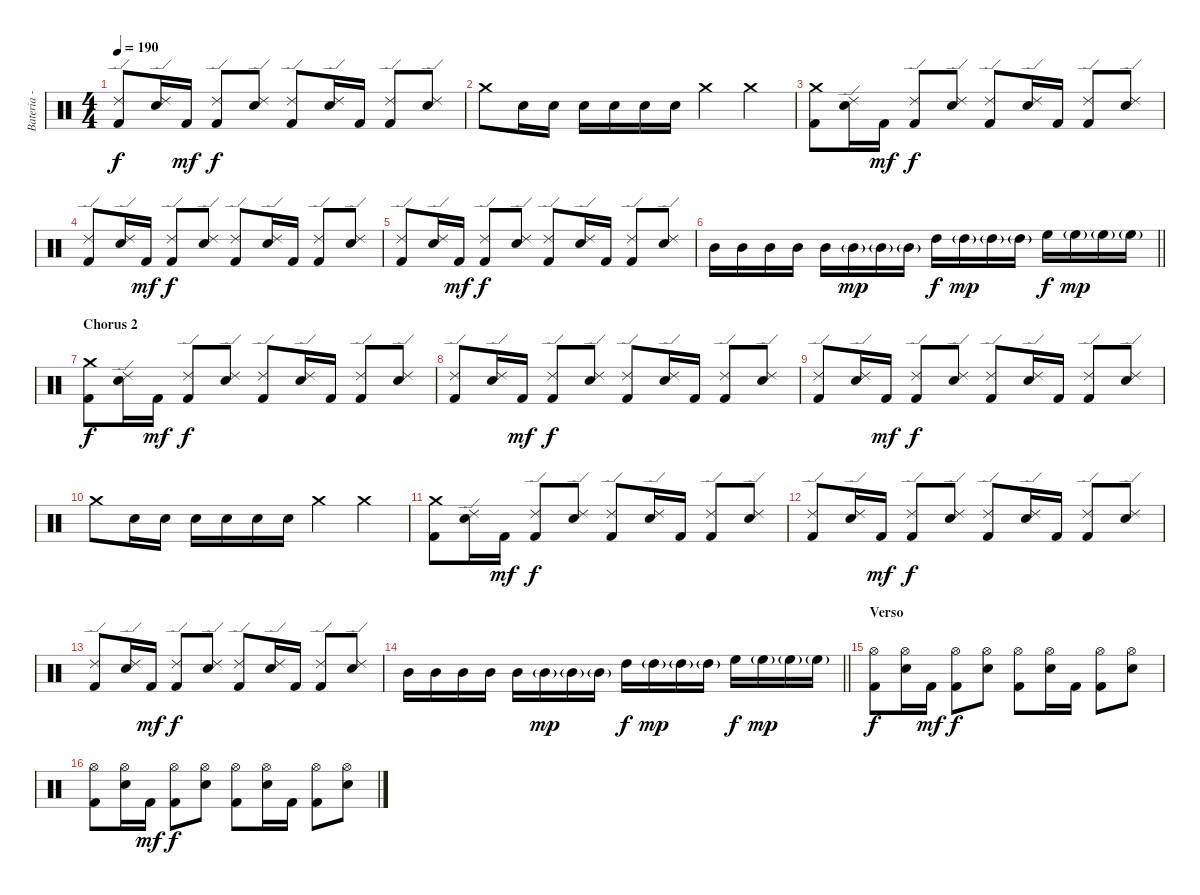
\track ("Bateria - Larzon" "Bateria - ") {instrument percussion}
\staff {score}
\articulation defaults
\ts (4 4)
\tempo 190
\clef neutral
\ks c
("Kick (hit) 2" "Ride (edge) 2").8{dy f} ("Electric Snare (hit)" "Ride (edge) 2").16 "Kick (hit) 2".16{dy mf} ("Kick (hit) 2" "Ride (edge) 2").8{dy f} ("Electric Snare (hit)" "Ride (edge) 2").8 ("Kick (hit) 2" "Ride (edge) 2").8 ("Electric Snare (hit)" "Ride (edge) 2").16 "Kick (hit) 2".16 ("Kick (hit) 2" "Ride (edge) 2").8 ("Electric Snare (hit)" "Ride (edge) 2").8 |
"Crash medium (hit)".8 "Electric Snare (hit)".16 "Electric Snare (hit)".16 "Electric Snare (hit)".16 "Electric Snare (hit)".16 "Electric Snare (hit)".16 "Electric Snare (hit)".16 "Crash medium (hit)".4 "Crash medium (hit)".4 |
("Kick (hit) 2" "Crash medium (hit)").8 ("Electric Snare (hit)" "Ride (edge) 2").16 "Kick (hit) 2".16{dy mf} ("Kick (hit) 2" "Ride (edge) 2").8{dy f} ("Electric Snare (hit)" "Ride (edge) 2").8 ("Kick (hit) 2" "Ride (edge) 2").8 ("Electric Snare (hit)" "Ride (edge) 2").16 "Kick (hit) 2".16 ("Kick (hit) 2" "Ride (edge) 2").8 ("Electric Snare (hit)" "Ride (edge) 2").8 |
("Kick (hit) 2" "Ride (edge) 2").8 ("Electric Snare (hit)" "Ride (edge) 2").16 "Kick (hit) 2".16{dy mf} ("Kick (hit) 2" "Ride (edge) 2").8{dy f} ("Electric Snare (hit)" "Ride (edge) 2").8 ("Kick (hit) 2" "Ride (edge) 2").8 ("Electric Snare (hit)" "Ride (edge) 2").16 "Kick (hit) 2".16 ("Kick (hit) 2" "Ride (edge) 2").8 ("Electric Snare (hit)" "Ride (edge) 2").8 |
("Kick (hit) 2" "Ride (edge) 2").8 ("Electric Snare (hit)" "Ride (edge) 2").16 "Kick (hit) 2".16{dy mf} ("Kick (hit) 2" "Ride (edge) 2").8{dy f} ("Electric Snare (hit)" "Ride (edge) 2").8 ("Kick (hit) 2" "Ride (edge) 2").8 ("Electric Snare (hit)" "Ride (edge) 2").16 "Kick (hit) 2".16 ("Kick (hit) 2" "Ride (edge) 2").8 ("Electric Snare (hit)" "Ride (edge) 2").8 |
\barLineRight lightlight "Mid Tom (hit)".16 "Mid Tom (hit)".16 "Mid Tom (hit)".16 "Mid Tom (hit)".16 "Mid Tom (hit)".16 "Mid Tom (hit)"{g}.16{dy mp} "Mid Tom (hit)"{g}.16 "Mid Tom (hit)"{g}.16 "High Tom (hit)".16{dy f} "High Tom (hit)"{g}.16{dy mp} "High Tom (hit)"{g}.16 "High Tom (hit)"{g}.16 "High Floor Tom (hit)".16{dy f} "High Floor Tom (hit)"{g}.16{dy mp} "High Floor Tom (hit)"{g}.16 "High Floor Tom (hit)"{g}.16
|
\section ("" "Chorus 2")
("Kick (hit) 2" "Crash medium (hit)").8{dy f} ("Electric Snare (hit)" "Ride (edge) 2").16 "Kick (hit) 2".16{dy mf} ("Kick (hit) 2" "Ride (edge) 2").8{dy f} ("Electric Snare (hit)" "Ride (edge) 2").8 ("Kick (hit) 2" "Ride (edge) 2").8 ("Electric Snare (hit)" "Ride (edge) 2").16 "Kick (hit) 2".16 ("Kick (hit) 2" "Ride (edge) 2").8 ("Electric Snare (hit)" "Ride (edge) 2").8 |
("Kick (hit) 2" "Ride (edge) 2").8 ("Electric Snare (hit)" "Ride (edge) 2").16 "Kick (hit) 2".16{dy mf} ("Kick (hit) 2" "Ride (edge) 2").8{dy f} ("Electric Snare (hit)" "Ride (edge) 2").8 ("Kick (hit) 2" "Ride (edge) 2").8 ("Electric Snare (hit)" "Ride (edge) 2").16 "Kick (hit) 2".16 ("Kick (hit) 2" "Ride (edge) 2").8 ("Electric Snare (hit)" "Ride (edge) 2").8 |
("Kick (hit) 2" "Ride (edge) 2").8 ("Electric Snare (hit)" "Ride (edge) 2").16 "Kick (hit) 2".16{dy mf} ("Kick (hit) 2" "Ride (edge) 2").8{dy f} ("Electric Snare (hit)" "Ride (edge) 2").8 ("Kick (hit) 2" "Ride (edge) 2").8 ("Electric Snare (hit)" "Ride (edge) 2").16 "Kick (hit) 2".16 ("Kick (hit) 2" "Ride (edge) 2").8 ("Electric Snare (hit)" "Ride (edge) 2").8 |
"Crash medium (hit)".8 "Electric Snare (hit)".16 "Electric Snare (hit)".16 "Electric Snare (hit)".16 "Electric Snare (hit)".16 "Electric Snare (hit)".16 "Electric Snare (hit)".16 "Crash medium (hit)".4 "Crash medium (hit)".4 |
("Kick (hit) 2" "Crash medium (hit)").8 ("Electric Snare (hit)" "Ride (edge) 2").16 "Kick (hit) 2".16{dy mf} ("Kick (hit) 2" "Ride (edge) 2").8{dy f} ("Electric Snare (hit)" "Ride (edge) 2").8 ("Kick (hit) 2" "Ride (edge) 2").8 ("Electric Snare (hit)" "Ride (edge) 2").16 "Kick (hit) 2".16 ("Kick (hit) 2" "Ride (edge) 2").8 ("Electric Snare (hit)" "Ride (edge) 2").8 |
("Kick (hit) 2" "Ride (edge) 2").8 ("Electric Snare (hit)" "Ride (edge) 2").16 "Kick (hit) 2".16{dy mf} ("Kick (hit) 2" "Ride (edge) 2").8{dy f} ("Electric Snare (hit)" "Ride (edge) 2").8 ("Kick (hit) 2" "Ride (edge) 2").8 ("Electric Snare (hit)" "Ride (edge) 2").16 "Kick (hit) 2".16 ("Kick (hit) 2" "Ride (edge) 2").8 ("Electric Snare (hit)" "Ride (edge) 2").8 |
("Kick (hit) 2" "Ride (edge) 2").8 ("Electric Snare (hit)" "Ride (edge) 2").16 "Kick (hit) 2".16{dy mf} ("Kick (hit) 2" "Ride (edge) 2").8{dy f} ("Electric Snare (hit)" "Ride (edge) 2").8 ("Kick (hit) 2" "Ride (edge) 2").8 ("Electric Snare (hit)" "Ride (edge) 2").16 "Kick (hit) 2".16 ("Kick (hit) 2" "Ride (edge) 2").8 ("Electric Snare (hit)" "Ride (edge) 2").8 |
\barLineRight lightlight "Mid Tom (hit)".16 "Mid Tom (hit)".16 "Mid Tom (hit)".16 "Mid Tom (hit)".16 "Mid Tom (hit)".16 "Mid Tom (hit)"{g}.16{dy mp} "Mid Tom (hit)"{g}.16 "Mid Tom (hit)"{g}.16 "High Tom (hit)".16{dy f} "High Tom (hit)"{g}.16{dy mp} "High Tom (hit)"{g}.16 "High Tom (hit)"{g}.16 "High Floor Tom (hit)".16{dy f} "High Floor Tom (hit)"{g}.16{dy mp} "High Floor Tom (hit)"{g}.16 "High Floor Tom (hit)"{g}.16
|
\section ("" "Verso ")
("Kick (hit) 2" "Hi-Hat (open)").8{dy f} ("Electric Snare (hit)" "Hi-Hat (open)").16 "Kick (hit) 2".16{dy mf} ("Kick (hit) 2" "Hi-Hat (open)").8{dy f} ("Electric Snare (hit)" "Hi-Hat (open)").8 ("Kick (hit) 2" "Hi-Hat (open)").8 ("Electric Snare (hit)" "Hi-Hat (open)").16 "Kick (hit) 2".16 ("Kick (hit) 2" "Hi-Hat (open)").8 ("Electric Snare (hit)" "Hi-Hat (open)").8 |
("Kick (hit) 2" "Hi-Hat (open)").8 ("Electric Snare (hit)" "Hi-Hat (open)").16 "Kick (hit) 2".16{dy mf} ("Kick (hit) 2" "Hi-Hat (open)").8{dy f} ("Electric Snare (hit)" "Hi-Hat (open)").8 ("Kick (hit) 2" "Hi-Hat (open)").8 ("Electric Snare (hit)" "Hi-Hat (open)").16 "Kick (hit) 2".16 ("Kick (hit) 2" "Hi-Hat (open)").8 ("Electric Snare (hit)" "Hi-Hat (open)").8
